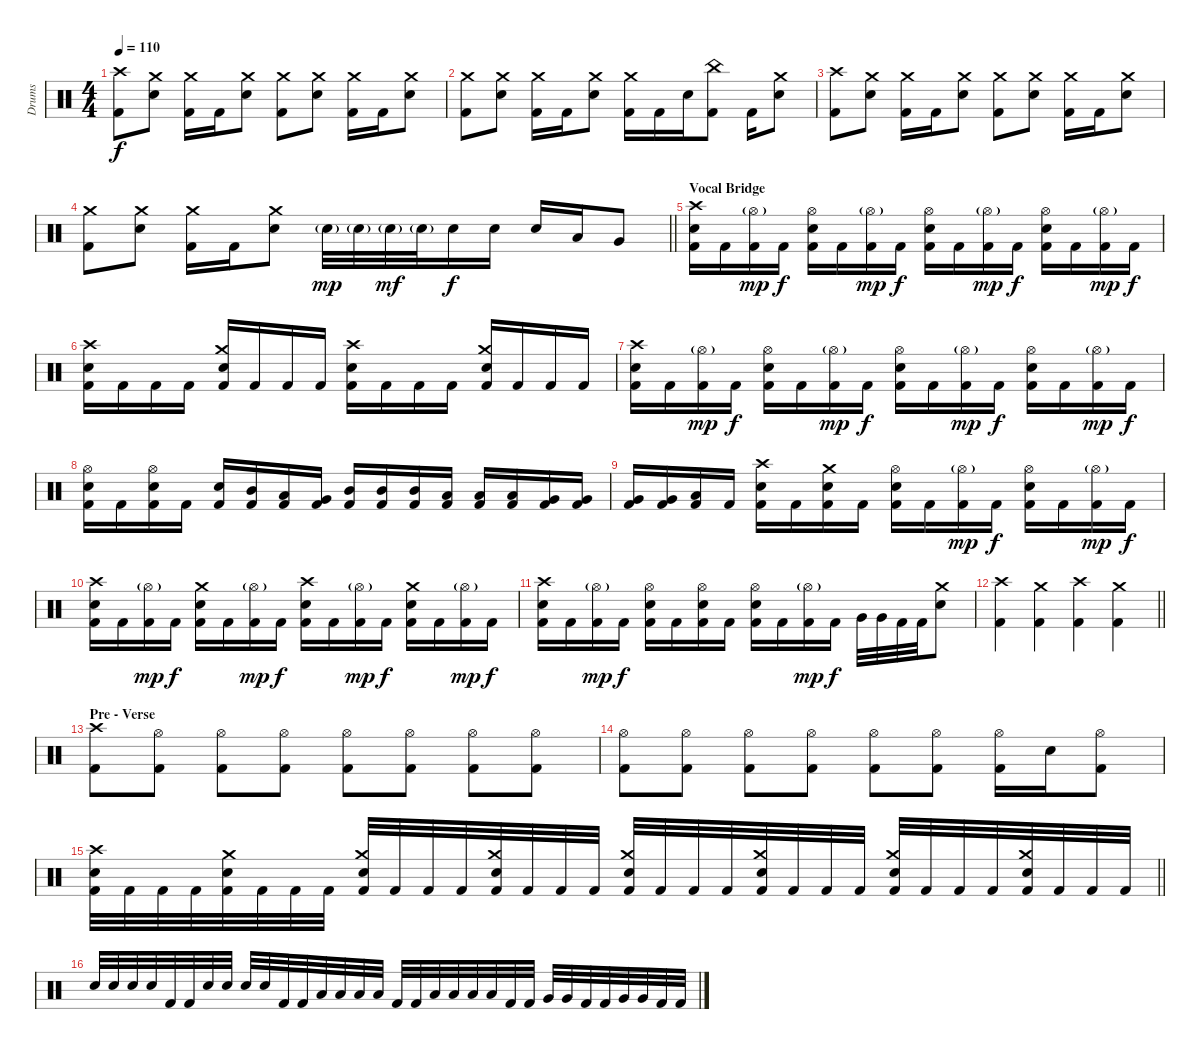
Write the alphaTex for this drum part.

\track ("Drums" "Drums") {instrument percussion}
\staff {score}
\articulation defaults
\ts (4 4)
\tempo 110
\clef neutral
\ks c
("Crash high (hit)" "Kick (hit) 2").8{dy f} ("Crash medium (hit)" "Electric Snare (hit)").8 ("Crash medium (hit)" "Kick (hit) 2").16 "Kick (hit) 2".16 ("Crash medium (hit)" "Electric Snare (hit)").8 ("Crash medium (hit)" "Kick (hit) 2").8 ("Crash medium (hit)" "Electric Snare (hit)").8 ("Crash medium (hit)" "Kick (hit) 2").16 "Kick (hit) 2".16 ("Crash medium (hit)" "Electric Snare (hit)").8 |
("Crash medium (hit)" "Kick (hit) 2").8 ("Crash medium (hit)" "Electric Snare (hit)").8 ("Crash medium (hit)" "Kick (hit) 2").16 "Kick (hit) 2".16 ("Crash medium (hit)" "Electric Snare (hit)").8 ("Crash medium (hit)" "Kick (hit) 2").16 "Kick (hit) 2".16 "Electric Snare (hit)".16 ("China (hit)" "Kick (hit) 2").8 "Kick (hit) 2".16 ("Crash medium (hit)" "Electric Snare (hit)").8 |
("Crash high (hit)" "Kick (hit) 2").8 ("Crash medium (hit)" "Electric Snare (hit)").8 ("Crash medium (hit)" "Kick (hit) 2").16 "Kick (hit) 2".16 ("Crash medium (hit)" "Electric Snare (hit)").8 ("Crash medium (hit)" "Kick (hit) 2").8 ("Crash medium (hit)" "Electric Snare (hit)").8 ("Crash medium (hit)" "Kick (hit) 2").16 "Kick (hit) 2".16 ("Crash medium (hit)" "Electric Snare (hit)").8 |
\barLineRight lightlight
("Crash medium (hit)" "Kick (hit) 2").8 ("Crash medium (hit)" "Electric Snare (hit)").8 ("Crash medium (hit)" "Kick (hit) 2").16 "Kick (hit) 2".16 ("Crash medium (hit)" "Electric Snare (hit)").8 "Electric Snare (hit)"{g}.32{dy mp} "Electric Snare (hit)"{g}.32 "Electric Snare (hit)"{g}.32{dy mf} "Electric Snare (hit)"{g}.32 "Electric Snare (hit)".16{dy f} "Electric Snare (hit)".16 "Electric Snare (hit)".16 "Low Tom (hit)".16 "Very Low Tom (hit)".8 |
\section ("" "Vocal Bridge")
("Crash high (hit)" "Electric Snare (hit)" "Kick (hit) 2").16 "Kick (hit) 2".16 ("Hi-Hat (open)"{g} "Kick (hit) 2").16{dy mp} "Kick (hit) 2".16{dy f} ("Hi-Hat (open)" "Electric Snare (hit)" "Kick (hit) 2").16 "Kick (hit) 2".16 ("Hi-Hat (open)"{g} "Kick (hit) 2").16{dy mp} "Kick (hit) 2".16{dy f} ("Hi-Hat (open)" "Electric Snare (hit)" "Kick (hit) 2").16 "Kick (hit) 2".16 ("Hi-Hat (open)"{g} "Kick (hit) 2").16{dy mp} "Kick (hit) 2".16{dy f} ("Hi-Hat (open)" "Electric Snare (hit)" "Kick (hit) 2").16 "Kick (hit) 2".16 ("Hi-Hat (open)"{g} "Kick (hit) 2").16{dy mp} "Kick (hit) 2".16{dy f} |
("Crash high (hit)" "Electric Snare (hit)" "Kick (hit) 2").16 "Kick (hit) 2".16 "Kick (hit) 2".16 "Kick (hit) 2".16 ("Crash medium (hit)" "Electric Snare (hit)" "Kick (hit) 2").16 "Kick (hit) 2".16 "Kick (hit) 2".16 "Kick (hit) 2".16 ("Crash high (hit)" "Electric Snare (hit)" "Kick (hit) 2").16 "Kick (hit) 2".16 "Kick (hit) 2".16 "Kick (hit) 2".16 ("Crash medium (hit)" "Electric Snare (hit)" "Kick (hit) 2").16 "Kick (hit) 2".16 "Kick (hit) 2".16 "Kick (hit) 2".16 |
("Crash high (hit)" "Electric Snare (hit)" "Kick (hit) 2").16 "Kick (hit) 2".16 ("Hi-Hat (open)"{g} "Kick (hit) 2").16{dy mp} "Kick (hit) 2".16{dy f} ("Hi-Hat (open)" "Electric Snare (hit)" "Kick (hit) 2").16 "Kick (hit) 2".16 ("Hi-Hat (open)"{g} "Kick (hit) 2").16{dy mp} "Kick (hit) 2".16{dy f} ("Hi-Hat (open)" "Electric Snare (hit)" "Kick (hit) 2").16 "Kick (hit) 2".16 ("Hi-Hat (open)"{g} "Kick (hit) 2").16{dy mp} "Kick (hit) 2".16{dy f} ("Hi-Hat (open)" "Electric Snare (hit)" "Kick (hit) 2").16 "Kick (hit) 2".16 ("Hi-Hat (open)"{g} "Kick (hit) 2").16{dy mp} "Kick (hit) 2".16{dy f} |
("Hi-Hat (open)" "Electric Snare (hit)" "Kick (hit) 2").16 "Kick (hit) 2".16 ("Hi-Hat (open)" "Electric Snare (hit)" "Kick (hit) 2").16 "Kick (hit) 2".16 ("Electric Snare (hit)" "Kick (hit) 2").16 ("Mid Tom (hit)" "Kick (hit) 2").16 ("Low Tom (hit)" "Kick (hit) 2").16 ("Very Low Tom (hit)" "Kick (hit) 2").16 ("Mid Tom (hit)" "Kick (hit) 2").16 ("Mid Tom (hit)" "Kick (hit) 2").16 ("Mid Tom (hit)" "Kick (hit) 2").16 ("Low Tom (hit)" "Kick (hit) 2").16 ("Low Tom (hit)" "Kick (hit) 2").16 ("Low Tom (hit)" "Kick (hit) 2").16 ("Very Low Tom (hit)" "Kick (hit) 2").16 ("Very Low Tom (hit)" "Kick (hit) 2").16 |
("Very Low Tom (hit)" "Kick (hit) 2").16 ("Very Low Tom (hit)" "Kick (hit) 2").16 ("Low Floor Tom (hit)" "Kick (hit) 2").16 "Kick (hit) 2".16 ("Crash high (hit)" "Electric Snare (hit)" "Kick (hit) 2").16 "Kick (hit) 2".16 ("Crash medium (hit)" "Electric Snare (hit)" "Kick (hit) 2").16 "Kick (hit) 2".16 ("Hi-Hat (open)" "Electric Snare (hit)" "Kick (hit) 2").16 "Kick (hit) 2".16 ("Hi-Hat (open)"{g} "Kick (hit) 2").16{dy mp} "Kick (hit) 2".16{dy f} ("Hi-Hat (open)" "Electric Snare (hit)" "Kick (hit) 2").16 "Kick (hit) 2".16 ("Hi-Hat (open)"{g} "Kick (hit) 2").16{dy mp} "Kick (hit) 2".16{dy f} |
("Crash high (hit)" "Electric Snare (hit)" "Kick (hit) 2").16 "Kick (hit) 2".16 ("Hi-Hat (open)"{g} "Kick (hit) 2").16{dy mp} "Kick (hit) 2".16{dy f} ("Crash medium (hit)" "Electric Snare (hit)" "Kick (hit) 2").16 "Kick (hit) 2".16 ("Hi-Hat (open)"{g} "Kick (hit) 2").16{dy mp} "Kick (hit) 2".16{dy f} ("Crash high (hit)" "Electric Snare (hit)" "Kick (hit) 2").16 "Kick (hit) 2".16 ("Hi-Hat (open)"{g} "Kick (hit) 2").16{dy mp} "Kick (hit) 2".16{dy f} ("Crash medium (hit)" "Electric Snare (hit)" "Kick (hit) 2").16 "Kick (hit) 2".16 ("Hi-Hat (open)"{g} "Kick (hit) 2").16{dy mp} "Kick (hit) 2".16{dy f} |
("Crash high (hit)" "Electric Snare (hit)" "Kick (hit) 2").16 "Kick (hit) 2".16 ("Hi-Hat (open)"{g} "Kick (hit) 2").16{dy mp} "Kick (hit) 2".16{dy f} ("Hi-Hat (open)" "Electric Snare (hit)" "Kick (hit) 2").16 "Kick (hit) 2".16 ("Hi-Hat (open)" "Electric Snare (hit)" "Kick (hit) 2").16 "Kick (hit) 2".16 ("Hi-Hat (open)" "Electric Snare (hit)" "Kick (hit) 2").16 "Kick (hit) 2".16 ("Hi-Hat (open)"{g} "Kick (hit) 2").16{dy mp} "Kick (hit) 2".16{dy f} "Very Low Tom (hit)".32 "Very Low Tom (hit)".32 "Kick (hit) 2".32 "Kick (hit) 2".32 ("Crash medium (hit)" "Electric Snare (hit)").8 |
\barLineRight lightlight
("Crash high (hit)" "Kick (hit) 2").4 ("Crash medium (hit)" "Kick (hit) 2").4 ("Crash high (hit)" "Kick (hit) 2").4 ("Crash medium (hit)" "Kick (hit) 2").4 |
\section ("" "Pre - Verse ")
("Crash high (hit)" "Kick (hit) 2").8 ("Hi-Hat (open)" "Kick (hit) 2").8 ("Hi-Hat (open)" "Kick (hit) 2").8 ("Hi-Hat (open)" "Kick (hit) 2").8 ("Hi-Hat (open)" "Kick (hit) 2").8 ("Hi-Hat (open)" "Kick (hit) 2").8 ("Hi-Hat (open)" "Kick (hit) 2").8 ("Hi-Hat (open)" "Kick (hit) 2").8 |
("Hi-Hat (open)" "Kick (hit) 2").8 ("Hi-Hat (open)" "Kick (hit) 2").8 ("Hi-Hat (open)" "Kick (hit) 2").8 ("Hi-Hat (open)" "Kick (hit) 2").8 ("Hi-Hat (open)" "Kick (hit) 2").8 ("Hi-Hat (open)" "Kick (hit) 2").8 ("Hi-Hat (open)" "Kick (hit) 2").16 "Electric Snare (hit)".16 ("Hi-Hat (open)" "Kick (hit) 2").8 |
\barLineRight lightlight
("Crash high (hit)" "Electric Snare (hit)" "Kick (hit) 2").32 "Kick (hit) 2".32 "Kick (hit) 2".32 "Kick (hit) 2".32 ("Crash medium (hit)" "Electric Snare (hit)" "Kick (hit) 2").32 "Kick (hit) 2".32 "Kick (hit) 2".32 "Kick (hit) 2".32 ("Crash medium (hit)" "Electric Snare (hit)" "Kick (hit) 2").32 "Kick (hit) 2".32 "Kick (hit) 2".32 "Kick (hit) 2".32 ("Crash medium (hit)" "Electric Snare (hit)" "Kick (hit) 2").32 "Kick (hit) 2".32 "Kick (hit) 2".32 "Kick (hit) 2".32 ("Crash medium (hit)" "Electric Snare (hit)" "Kick (hit) 2").32 "Kick (hit) 2".32 "Kick (hit) 2".32 "Kick (hit) 2".32 ("Crash medium (hit)" "Electric Snare (hit)" "Kick (hit) 2").32 "Kick (hit) 2".32 "Kick (hit) 2".32 "Kick (hit) 2".32 ("Crash medium (hit)" "Electric Snare (hit)" "Kick (hit) 2").32 "Kick (hit) 2".32 "Kick (hit) 2".32 "Kick (hit) 2".32 ("Crash medium (hit)" "Electric Snare (hit)" "Kick (hit) 2").32 "Kick (hit) 2".32 "Kick (hit) 2".32 "Kick (hit) 2".32 |
"Electric Snare (hit)".32 "Electric Snare (hit)".32 "Electric Snare (hit)".32 "Electric Snare (hit)".32 "Kick (hit) 2".32 "Kick (hit) 2".32 "Electric Snare (hit)".32 "Electric Snare (hit)".32 "Electric Snare (hit)".32 "Electric Snare (hit)".32 "Kick (hit) 2".32 "Kick (hit) 2".32 "Low Tom (hit)".32 "Low Tom (hit)".32 "Low Tom (hit)".32 "Low Tom (hit)".32 "Kick (hit) 2".32 "Kick (hit) 2".32 "Low Tom (hit)".32 "Low Tom (hit)".32 "Low Tom (hit)".32 "Low Tom (hit)".32 "Kick (hit) 2".32 "Kick (hit) 2".32 "Very Low Tom (hit)".32 "Very Low Tom (hit)".32 "Kick (hit) 2".32 "Kick (hit) 2".32 "Very Low Tom (hit)".32 "Very Low Tom (hit)".32 "Kick (hit) 2".32 "Kick (hit) 2".32
